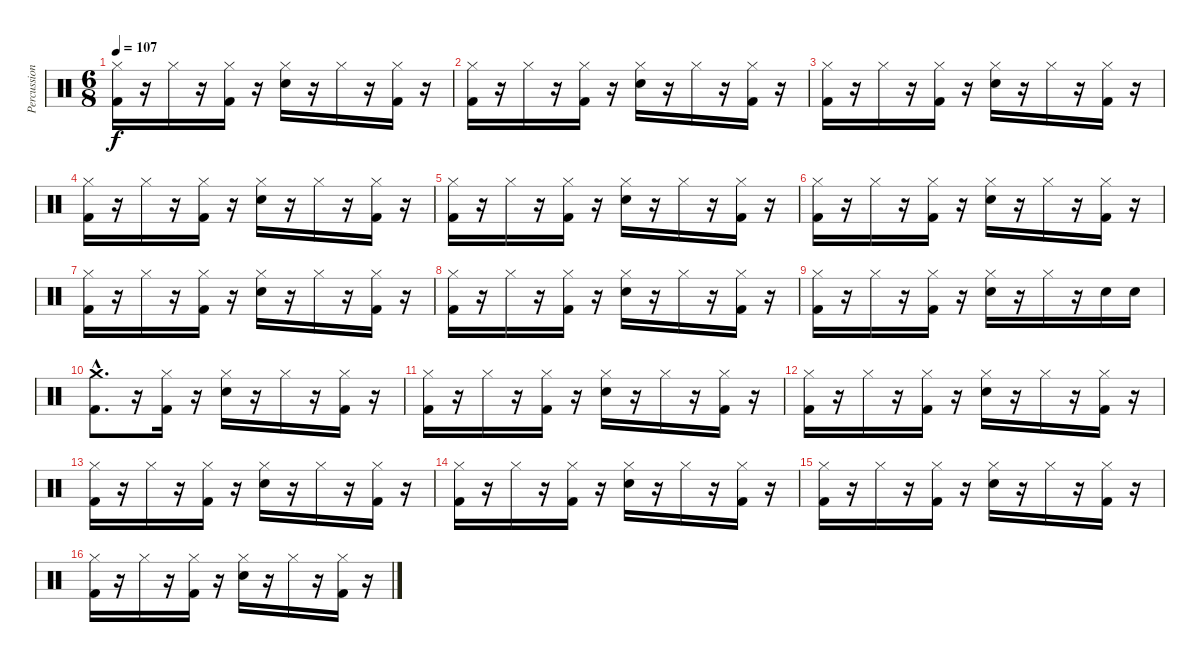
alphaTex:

\track ("Percussions" "Percussion") {instrument percussion}
\staff {score}
\articulation defaults
\ts (6 8)
\tempo 107
\clef neutral
\ks c
("Kick (hit) 2" "Hi-Hat (closed)").16{dy f} r.16 "Hi-Hat (closed)".16 r.16 ("Kick (hit) 2" "Hi-Hat (closed)").16 r.16 ("Snare (hit) 2" "Hi-Hat (closed)").16 r.16 "Hi-Hat (closed)".16 r.16 ("Kick (hit) 2" "Hi-Hat (closed)").16 r.16 |
("Kick (hit) 2" "Hi-Hat (closed)").16 r.16 "Hi-Hat (closed)".16 r.16 ("Kick (hit) 2" "Hi-Hat (closed)").16 r.16 ("Snare (hit) 2" "Hi-Hat (closed)").16 r.16 "Hi-Hat (closed)".16 r.16 ("Kick (hit) 2" "Hi-Hat (closed)").16 r.16 |
("Kick (hit) 2" "Hi-Hat (closed)").16 r.16 "Hi-Hat (closed)".16 r.16 ("Kick (hit) 2" "Hi-Hat (closed)").16 r.16 ("Snare (hit) 2" "Hi-Hat (closed)").16 r.16 "Hi-Hat (closed)".16 r.16 ("Kick (hit) 2" "Hi-Hat (closed)").16 r.16 |
("Kick (hit) 2" "Hi-Hat (closed)").16 r.16 "Hi-Hat (closed)".16 r.16 ("Kick (hit) 2" "Hi-Hat (closed)").16 r.16 ("Snare (hit) 2" "Hi-Hat (closed)").16 r.16 "Hi-Hat (closed)".16 r.16 ("Kick (hit) 2" "Hi-Hat (closed)").16 r.16 |
("Kick (hit) 2" "Hi-Hat (closed)").16 r.16 "Hi-Hat (closed)".16 r.16 ("Kick (hit) 2" "Hi-Hat (closed)").16 r.16 ("Snare (hit) 2" "Hi-Hat (closed)").16 r.16 "Hi-Hat (closed)".16 r.16 ("Kick (hit) 2" "Hi-Hat (closed)").16 r.16 |
("Kick (hit) 2" "Hi-Hat (closed)").16 r.16 "Hi-Hat (closed)".16 r.16 ("Kick (hit) 2" "Hi-Hat (closed)").16 r.16 ("Snare (hit) 2" "Hi-Hat (closed)").16 r.16 "Hi-Hat (closed)".16 r.16 ("Kick (hit) 2" "Hi-Hat (closed)").16 r.16 |
("Kick (hit) 2" "Hi-Hat (closed)").16 r.16 "Hi-Hat (closed)".16 r.16 ("Kick (hit) 2" "Hi-Hat (closed)").16 r.16 ("Snare (hit) 2" "Hi-Hat (closed)").16 r.16 "Hi-Hat (closed)".16 r.16 ("Kick (hit) 2" "Hi-Hat (closed)").16 r.16 |
("Kick (hit) 2" "Hi-Hat (closed)").16 r.16 "Hi-Hat (closed)".16 r.16 ("Kick (hit) 2" "Hi-Hat (closed)").16 r.16 ("Snare (hit) 2" "Hi-Hat (closed)").16 r.16 "Hi-Hat (closed)".16 r.16 ("Kick (hit) 2" "Hi-Hat (closed)").16 r.16 |
("Kick (hit) 2" "Hi-Hat (closed)").16 r.16 "Hi-Hat (closed)".16 r.16 ("Kick (hit) 2" "Hi-Hat (closed)").16 r.16 ("Snare (hit) 2" "Hi-Hat (closed)").16 r.16 "Hi-Hat (closed)".16 r.16 "Snare (hit) 2".16 "Snare (hit) 2".16 |
("Kick (hit) 2"{hac} "Crash medium (hit)"{hac}).8{d} r.16 ("Kick (hit) 2" "Hi-Hat (closed)").16 r.16 ("Snare (hit) 2" "Hi-Hat (closed)").16 r.16 "Hi-Hat (closed)".16 r.16 ("Kick (hit) 2" "Hi-Hat (closed)").16 r.16 |
("Kick (hit) 2" "Hi-Hat (closed)").16 r.16 "Hi-Hat (closed)".16 r.16 ("Kick (hit) 2" "Hi-Hat (closed)").16 r.16 ("Snare (hit) 2" "Hi-Hat (closed)").16 r.16 "Hi-Hat (closed)".16 r.16 ("Kick (hit) 2" "Hi-Hat (closed)").16 r.16 |
("Kick (hit) 2" "Hi-Hat (closed)").16 r.16 "Hi-Hat (closed)".16 r.16 ("Kick (hit) 2" "Hi-Hat (closed)").16 r.16 ("Snare (hit) 2" "Hi-Hat (closed)").16 r.16 "Hi-Hat (closed)".16 r.16 ("Kick (hit) 2" "Hi-Hat (closed)").16 r.16 |
("Kick (hit) 2" "Hi-Hat (closed)").16 r.16 "Hi-Hat (closed)".16 r.16 ("Kick (hit) 2" "Hi-Hat (closed)").16 r.16 ("Snare (hit) 2" "Hi-Hat (closed)").16 r.16 "Hi-Hat (closed)".16 r.16 ("Kick (hit) 2" "Hi-Hat (closed)").16 r.16 |
("Kick (hit) 2" "Hi-Hat (closed)").16 r.16 "Hi-Hat (closed)".16 r.16 ("Kick (hit) 2" "Hi-Hat (closed)").16 r.16 ("Snare (hit) 2" "Hi-Hat (closed)").16 r.16 "Hi-Hat (closed)".16 r.16 ("Kick (hit) 2" "Hi-Hat (closed)").16 r.16 |
("Kick (hit) 2" "Hi-Hat (closed)").16 r.16 "Hi-Hat (closed)".16 r.16 ("Kick (hit) 2" "Hi-Hat (closed)").16 r.16 ("Snare (hit) 2" "Hi-Hat (closed)").16 r.16 "Hi-Hat (closed)".16 r.16 ("Kick (hit) 2" "Hi-Hat (closed)").16 r.16 |
("Kick (hit) 2" "Hi-Hat (closed)").16 r.16 "Hi-Hat (closed)".16 r.16 ("Kick (hit) 2" "Hi-Hat (closed)").16 r.16 ("Snare (hit) 2" "Hi-Hat (closed)").16 r.16 "Hi-Hat (closed)".16 r.16 ("Kick (hit) 2" "Hi-Hat (closed)").16 r.16
